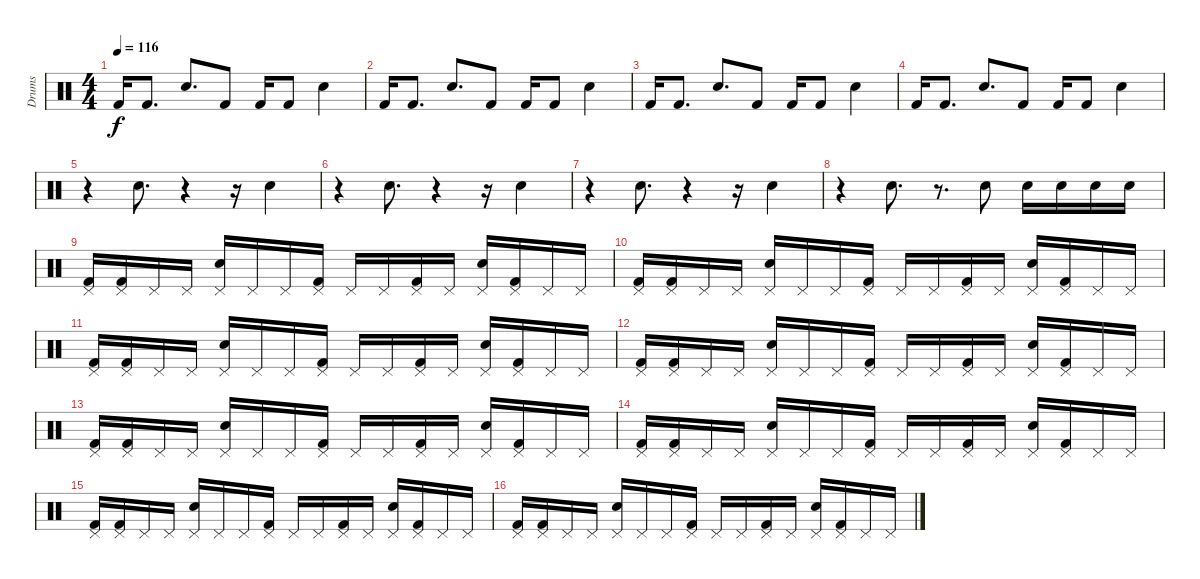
\track ("Drums" "Drums") {instrument percussion}
\staff {score}
\articulation defaults
\ts (4 4)
\tempo 116
\clef neutral
\ks c "Kick (hit) 2".16{dy f} "Kick (hit) 2".8{d} "Snare (hit) 2".8{d} "Kick (hit) 2".8 "Kick (hit) 2".16 "Kick (hit) 2".8 "Snare (hit) 2".4
|
"Kick (hit) 2".16 "Kick (hit) 2".8{d} "Snare (hit) 2".8{d} "Kick (hit) 2".8 "Kick (hit) 2".16 "Kick (hit) 2".8 "Snare (hit) 2".4 |
"Kick (hit) 2".16 "Kick (hit) 2".8{d} "Snare (hit) 2".8{d} "Kick (hit) 2".8 "Kick (hit) 2".16 "Kick (hit) 2".8 "Snare (hit) 2".4 |
"Kick (hit) 2".16 "Kick (hit) 2".8{d} "Snare (hit) 2".8{d} "Kick (hit) 2".8 "Kick (hit) 2".16 "Kick (hit) 2".8 "Snare (hit) 2".4 |
r.4 "Snare (hit) 2".8{d} r.4 r.16 "Snare (hit) 2".4 |
r.4 "Snare (hit) 2".8{d} r.4 r.16 "Snare (hit) 2".4 |
r.4 "Snare (hit) 2".8{d} r.4 r.16 "Snare (hit) 2".4 |
r.4 "Snare (hit) 2".8{d} r.8{d} "Snare (hit) 2".8 "Snare (hit) 2".16 "Snare (hit) 2".16 "Snare (hit) 2".16 "Snare (hit) 2".16 |
("Pedal Hi-Hat (hit)" "Kick (hit) 2").16 ("Kick (hit) 2" "Pedal Hi-Hat (hit)").16 "Pedal Hi-Hat (hit)".16 "Pedal Hi-Hat (hit)".16 ("Snare (hit) 2" "Pedal Hi-Hat (hit)").16 "Pedal Hi-Hat (hit)".16 "Pedal Hi-Hat (hit)".16 ("Pedal Hi-Hat (hit)" "Kick (hit) 2").16 "Pedal Hi-Hat (hit)".16 "Pedal Hi-Hat (hit)".16 ("Pedal Hi-Hat (hit)" "Kick (hit) 2").16 "Pedal Hi-Hat (hit)".16 ("Snare (hit) 2" "Pedal Hi-Hat (hit)").16 ("Pedal Hi-Hat (hit)" "Kick (hit) 2").16 "Pedal Hi-Hat (hit)".16 "Pedal Hi-Hat (hit)".16 |
("Pedal Hi-Hat (hit)" "Kick (hit) 2").16 ("Pedal Hi-Hat (hit)" "Kick (hit) 2").16 "Pedal Hi-Hat (hit)".16 "Pedal Hi-Hat (hit)".16 ("Snare (hit) 2" "Pedal Hi-Hat (hit)").16 "Pedal Hi-Hat (hit)".16 "Pedal Hi-Hat (hit)".16 ("Pedal Hi-Hat (hit)" "Kick (hit) 2").16 "Pedal Hi-Hat (hit)".16 "Pedal Hi-Hat (hit)".16 ("Kick (hit) 2" "Pedal Hi-Hat (hit)").16 "Pedal Hi-Hat (hit)".16 ("Pedal Hi-Hat (hit)" "Snare (hit) 2").16 ("Kick (hit) 2" "Pedal Hi-Hat (hit)").16 "Pedal Hi-Hat (hit)".16 "Pedal Hi-Hat (hit)".16 |
("Pedal Hi-Hat (hit)" "Kick (hit) 2").16 ("Kick (hit) 2" "Pedal Hi-Hat (hit)").16 "Pedal Hi-Hat (hit)".16 "Pedal Hi-Hat (hit)".16 ("Pedal Hi-Hat (hit)" "Snare (hit) 2").16 "Pedal Hi-Hat (hit)".16 "Pedal Hi-Hat (hit)".16 ("Pedal Hi-Hat (hit)" "Kick (hit) 2").16 "Pedal Hi-Hat (hit)".16 "Pedal Hi-Hat (hit)".16 ("Kick (hit) 2" "Pedal Hi-Hat (hit)").16 "Pedal Hi-Hat (hit)".16 ("Pedal Hi-Hat (hit)" "Snare (hit) 2").16 ("Kick (hit) 2" "Pedal Hi-Hat (hit)").16 "Pedal Hi-Hat (hit)".16 "Pedal Hi-Hat (hit)".16 |
("Kick (hit) 2" "Pedal Hi-Hat (hit)").16 ("Kick (hit) 2" "Pedal Hi-Hat (hit)").16 "Pedal Hi-Hat (hit)".16 "Pedal Hi-Hat (hit)".16 ("Pedal Hi-Hat (hit)" "Snare (hit) 2").16 "Pedal Hi-Hat (hit)".16 "Pedal Hi-Hat (hit)".16 ("Kick (hit) 2" "Pedal Hi-Hat (hit)").16 "Pedal Hi-Hat (hit)".16 "Pedal Hi-Hat (hit)".16 ("Kick (hit) 2" "Pedal Hi-Hat (hit)").16 "Pedal Hi-Hat (hit)".16 ("Snare (hit) 2" "Pedal Hi-Hat (hit)").16 ("Pedal Hi-Hat (hit)" "Kick (hit) 2").16 "Pedal Hi-Hat (hit)".16 "Pedal Hi-Hat (hit)".16 |
("Kick (hit) 2" "Pedal Hi-Hat (hit)").16 ("Kick (hit) 2" "Pedal Hi-Hat (hit)").16 "Pedal Hi-Hat (hit)".16 "Pedal Hi-Hat (hit)".16 ("Pedal Hi-Hat (hit)" "Snare (hit) 2").16 "Pedal Hi-Hat (hit)".16 "Pedal Hi-Hat (hit)".16 ("Kick (hit) 2" "Pedal Hi-Hat (hit)").16 "Pedal Hi-Hat (hit)".16 "Pedal Hi-Hat (hit)".16 ("Pedal Hi-Hat (hit)" "Kick (hit) 2").16 "Pedal Hi-Hat (hit)".16 ("Pedal Hi-Hat (hit)" "Snare (hit) 2").16 ("Pedal Hi-Hat (hit)" "Kick (hit) 2").16 "Pedal Hi-Hat (hit)".16 "Pedal Hi-Hat (hit)".16 |
("Kick (hit) 2" "Pedal Hi-Hat (hit)").16 ("Pedal Hi-Hat (hit)" "Kick (hit) 2").16 "Pedal Hi-Hat (hit)".16 "Pedal Hi-Hat (hit)".16 ("Snare (hit) 2" "Pedal Hi-Hat (hit)").16 "Pedal Hi-Hat (hit)".16 "Pedal Hi-Hat (hit)".16 ("Kick (hit) 2" "Pedal Hi-Hat (hit)").16 "Pedal Hi-Hat (hit)".16 "Pedal Hi-Hat (hit)".16 ("Pedal Hi-Hat (hit)" "Kick (hit) 2").16 "Pedal Hi-Hat (hit)".16 ("Snare (hit) 2" "Pedal Hi-Hat (hit)").16 ("Pedal Hi-Hat (hit)" "Kick (hit) 2").16 "Pedal Hi-Hat (hit)".16 "Pedal Hi-Hat (hit)".16 |
("Pedal Hi-Hat (hit)" "Kick (hit) 2").16 ("Kick (hit) 2" "Pedal Hi-Hat (hit)").16 "Pedal Hi-Hat (hit)".16 "Pedal Hi-Hat (hit)".16 ("Snare (hit) 2" "Pedal Hi-Hat (hit)").16 "Pedal Hi-Hat (hit)".16 "Pedal Hi-Hat (hit)".16 ("Kick (hit) 2" "Pedal Hi-Hat (hit)").16 "Pedal Hi-Hat (hit)".16 "Pedal Hi-Hat (hit)".16 ("Kick (hit) 2" "Pedal Hi-Hat (hit)").16 "Pedal Hi-Hat (hit)".16 ("Pedal Hi-Hat (hit)" "Snare (hit) 2").16 ("Kick (hit) 2" "Pedal Hi-Hat (hit)").16 "Pedal Hi-Hat (hit)".16 "Pedal Hi-Hat (hit)".16 |
("Kick (hit) 2" "Pedal Hi-Hat (hit)").16 ("Kick (hit) 2" "Pedal Hi-Hat (hit)").16 "Pedal Hi-Hat (hit)".16 "Pedal Hi-Hat (hit)".16 ("Pedal Hi-Hat (hit)" "Snare (hit) 2").16 "Pedal Hi-Hat (hit)".16 "Pedal Hi-Hat (hit)".16 ("Pedal Hi-Hat (hit)" "Kick (hit) 2").16 "Pedal Hi-Hat (hit)".16 "Pedal Hi-Hat (hit)".16 ("Kick (hit) 2" "Pedal Hi-Hat (hit)").16 "Pedal Hi-Hat (hit)".16 ("Pedal Hi-Hat (hit)" "Snare (hit) 2").16 ("Pedal Hi-Hat (hit)" "Kick (hit) 2").16 "Pedal Hi-Hat (hit)".16 "Pedal Hi-Hat (hit)".16
